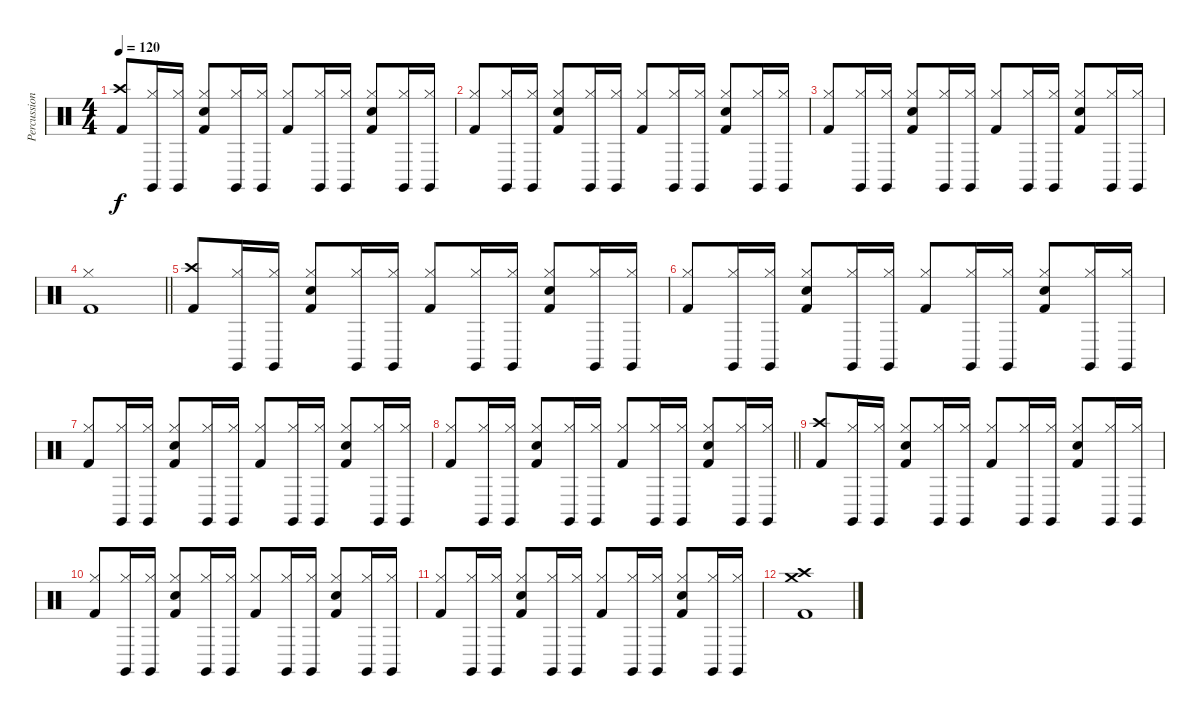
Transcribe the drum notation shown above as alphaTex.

\track ("Percussion" "Percussion") {instrument percussion}
\staff {score}
\articulation defaults
\ts (4 4)
\tempo 120
\clef neutral
\ks c
("Crash high (hit)" "Kick (hit) 2").8{dy f} ("Hi-Hat (closed)" "Claves (hit)").16 ("Hi-Hat (closed)" "Claves (hit)").16 ("Hi-Hat (closed)" "Electric Snare (hit)" "Kick (hit) 2").8 ("Hi-Hat (closed)" "Claves (hit)").16 ("Hi-Hat (closed)" "Claves (hit)").16 ("Hi-Hat (closed)" "Kick (hit) 2").8 ("Hi-Hat (closed)" "Claves (hit)").16 ("Hi-Hat (closed)" "Claves (hit)").16 ("Hi-Hat (closed)" "Electric Snare (hit)" "Kick (hit) 2").8 ("Hi-Hat (closed)" "Claves (hit)").16 ("Hi-Hat (closed)" "Claves (hit)").16 |
("Hi-Hat (closed)" "Kick (hit) 2").8 ("Hi-Hat (closed)" "Claves (hit)").16 ("Hi-Hat (closed)" "Claves (hit)").16 ("Hi-Hat (closed)" "Electric Snare (hit)" "Kick (hit) 2").8 ("Hi-Hat (closed)" "Claves (hit)").16 ("Hi-Hat (closed)" "Claves (hit)").16 ("Hi-Hat (closed)" "Kick (hit) 2").8 ("Hi-Hat (closed)" "Claves (hit)").16 ("Hi-Hat (closed)" "Claves (hit)").16 ("Hi-Hat (closed)" "Electric Snare (hit)" "Kick (hit) 2").8 ("Hi-Hat (closed)" "Claves (hit)").16 ("Hi-Hat (closed)" "Claves (hit)").16 |
("Hi-Hat (closed)" "Kick (hit) 2").8 ("Hi-Hat (closed)" "Claves (hit)").16 ("Hi-Hat (closed)" "Claves (hit)").16 ("Hi-Hat (closed)" "Electric Snare (hit)" "Kick (hit) 2").8 ("Hi-Hat (closed)" "Claves (hit)").16 ("Hi-Hat (closed)" "Claves (hit)").16 ("Hi-Hat (closed)" "Kick (hit) 2").8 ("Hi-Hat (closed)" "Claves (hit)").16 ("Hi-Hat (closed)" "Claves (hit)").16 ("Hi-Hat (closed)" "Electric Snare (hit)" "Kick (hit) 2").8 ("Hi-Hat (closed)" "Claves (hit)").16 ("Hi-Hat (closed)" "Claves (hit)").16 |
\barLineRight lightlight
("Hi-Hat (closed)" "Kick (hit) 2").1 |
("Crash high (hit)" "Kick (hit) 2").8 ("Hi-Hat (closed)" "Claves (hit)").16 ("Hi-Hat (closed)" "Claves (hit)").16 ("Hi-Hat (closed)" "Electric Snare (hit)" "Kick (hit) 2").8 ("Hi-Hat (closed)" "Claves (hit)").16 ("Hi-Hat (closed)" "Claves (hit)").16 ("Hi-Hat (closed)" "Kick (hit) 2").8 ("Hi-Hat (closed)" "Claves (hit)").16 ("Hi-Hat (closed)" "Claves (hit)").16 ("Hi-Hat (closed)" "Electric Snare (hit)" "Kick (hit) 2").8 ("Hi-Hat (closed)" "Claves (hit)").16 ("Hi-Hat (closed)" "Claves (hit)").16 |
("Hi-Hat (closed)" "Kick (hit) 2").8 ("Hi-Hat (closed)" "Claves (hit)").16 ("Hi-Hat (closed)" "Claves (hit)").16 ("Hi-Hat (closed)" "Electric Snare (hit)" "Kick (hit) 2").8 ("Hi-Hat (closed)" "Claves (hit)").16 ("Hi-Hat (closed)" "Claves (hit)").16 ("Hi-Hat (closed)" "Kick (hit) 2").8 ("Hi-Hat (closed)" "Claves (hit)").16 ("Hi-Hat (closed)" "Claves (hit)").16 ("Hi-Hat (closed)" "Electric Snare (hit)" "Kick (hit) 2").8 ("Hi-Hat (closed)" "Claves (hit)").16 ("Hi-Hat (closed)" "Claves (hit)").16 |
("Hi-Hat (closed)" "Kick (hit) 2").8 ("Hi-Hat (closed)" "Claves (hit)").16 ("Hi-Hat (closed)" "Claves (hit)").16 ("Hi-Hat (closed)" "Electric Snare (hit)" "Kick (hit) 2").8 ("Hi-Hat (closed)" "Claves (hit)").16 ("Hi-Hat (closed)" "Claves (hit)").16 ("Hi-Hat (closed)" "Kick (hit) 2").8 ("Hi-Hat (closed)" "Claves (hit)").16 ("Hi-Hat (closed)" "Claves (hit)").16 ("Hi-Hat (closed)" "Electric Snare (hit)" "Kick (hit) 2").8 ("Hi-Hat (closed)" "Claves (hit)").16 ("Hi-Hat (closed)" "Claves (hit)").16 |
\barLineRight lightlight
("Hi-Hat (closed)" "Kick (hit) 2").8 ("Hi-Hat (closed)" "Claves (hit)").16 ("Hi-Hat (closed)" "Claves (hit)").16 ("Hi-Hat (closed)" "Electric Snare (hit)" "Kick (hit) 2").8 ("Hi-Hat (closed)" "Claves (hit)").16 ("Hi-Hat (closed)" "Claves (hit)").16 ("Hi-Hat (closed)" "Kick (hit) 2").8 ("Hi-Hat (closed)" "Claves (hit)").16 ("Hi-Hat (closed)" "Claves (hit)").16 ("Hi-Hat (closed)" "Electric Snare (hit)" "Kick (hit) 2").8 ("Hi-Hat (closed)" "Claves (hit)").16 ("Hi-Hat (closed)" "Claves (hit)").16 |
("Crash high (hit)" "Kick (hit) 2").8 ("Hi-Hat (closed)" "Claves (hit)").16 ("Hi-Hat (closed)" "Claves (hit)").16 ("Hi-Hat (closed)" "Electric Snare (hit)" "Kick (hit) 2").8 ("Hi-Hat (closed)" "Claves (hit)").16 ("Hi-Hat (closed)" "Claves (hit)").16 ("Hi-Hat (closed)" "Kick (hit) 2").8 ("Hi-Hat (closed)" "Claves (hit)").16 ("Hi-Hat (closed)" "Claves (hit)").16 ("Hi-Hat (closed)" "Electric Snare (hit)" "Kick (hit) 2").8 ("Hi-Hat (closed)" "Claves (hit)").16 ("Hi-Hat (closed)" "Claves (hit)").16 |
("Hi-Hat (closed)" "Kick (hit) 2").8 ("Hi-Hat (closed)" "Claves (hit)").16 ("Hi-Hat (closed)" "Claves (hit)").16 ("Hi-Hat (closed)" "Electric Snare (hit)" "Kick (hit) 2").8 ("Hi-Hat (closed)" "Claves (hit)").16 ("Hi-Hat (closed)" "Claves (hit)").16 ("Hi-Hat (closed)" "Kick (hit) 2").8 ("Hi-Hat (closed)" "Claves (hit)").16 ("Hi-Hat (closed)" "Claves (hit)").16 ("Hi-Hat (closed)" "Electric Snare (hit)" "Kick (hit) 2").8 ("Hi-Hat (closed)" "Claves (hit)").16 ("Hi-Hat (closed)" "Claves (hit)").16 |
("Hi-Hat (closed)" "Kick (hit) 2").8 ("Hi-Hat (closed)" "Claves (hit)").16 ("Hi-Hat (closed)" "Claves (hit)").16 ("Hi-Hat (closed)" "Electric Snare (hit)" "Kick (hit) 2").8 ("Hi-Hat (closed)" "Claves (hit)").16 ("Hi-Hat (closed)" "Claves (hit)").16 ("Hi-Hat (closed)" "Kick (hit) 2").8 ("Hi-Hat (closed)" "Claves (hit)").16 ("Hi-Hat (closed)" "Claves (hit)").16 ("Hi-Hat (closed)" "Electric Snare (hit)" "Kick (hit) 2").8 ("Hi-Hat (closed)" "Claves (hit)").16 ("Hi-Hat (closed)" "Claves (hit)").16 |
("Crash high (hit)" "Crash medium (hit)" "Kick (hit) 2").1
